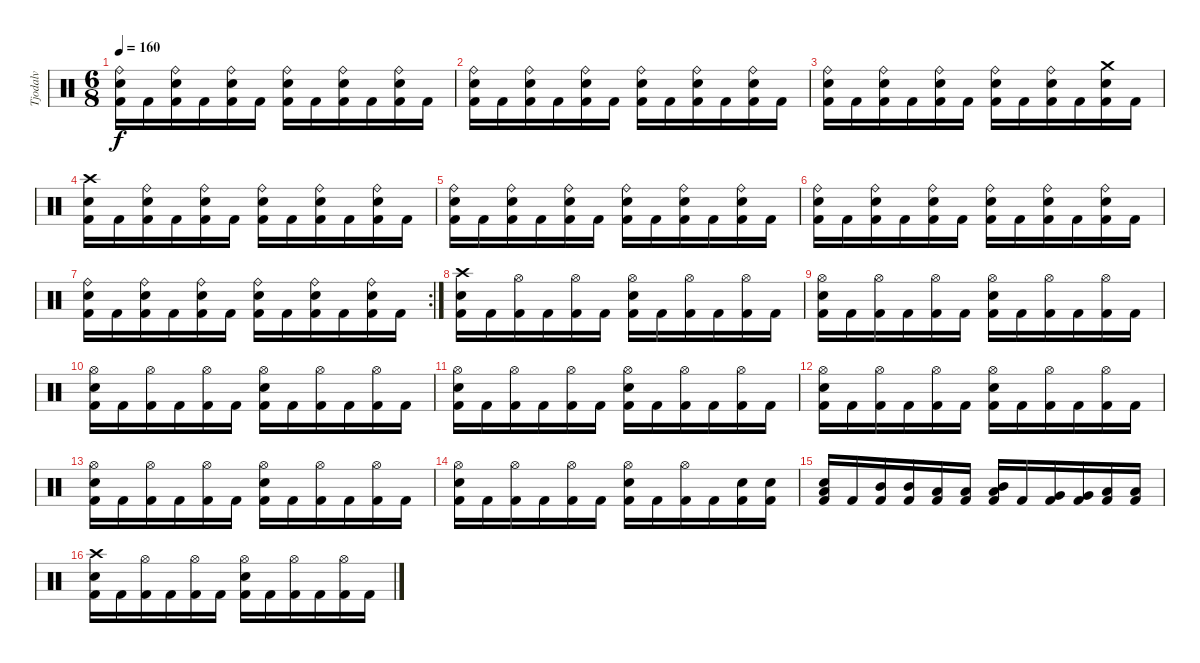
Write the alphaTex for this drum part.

\track ("Tjodalv" "Tjodalv") {instrument percussion}
\staff {score}
\articulation defaults
\ts (6 8)
\tempo 160
\clef neutral
\ks c
("Ride (bell)" "Snare (hit) 2" "Kick (hit) 2").16{dy f} "Kick (hit) 2".16 ("Ride (bell)" "Snare (hit) 2" "Kick (hit) 2").16 "Kick (hit) 2".16 ("Ride (bell)" "Snare (hit) 2" "Kick (hit) 2").16 "Kick (hit) 2".16 ("Ride (bell)" "Snare (hit) 2" "Kick (hit) 2").16 "Kick (hit) 2".16 ("Ride (bell)" "Snare (hit) 2" "Kick (hit) 2").16 "Kick (hit) 2".16 ("Ride (bell)" "Snare (hit) 2" "Kick (hit) 2").16 "Kick (hit) 2".16 |
("Ride (bell)" "Snare (hit) 2" "Kick (hit) 2").16 "Kick (hit) 2".16 ("Ride (bell)" "Snare (hit) 2" "Kick (hit) 2").16 "Kick (hit) 2".16 ("Ride (bell)" "Snare (hit) 2" "Kick (hit) 2").16 "Kick (hit) 2".16 ("Ride (bell)" "Snare (hit) 2" "Kick (hit) 2").16 "Kick (hit) 2".16 ("Ride (bell)" "Snare (hit) 2" "Kick (hit) 2").16 "Kick (hit) 2".16 ("Ride (bell)" "Snare (hit) 2" "Kick (hit) 2").16 "Kick (hit) 2".16 |
("Ride (bell)" "Snare (hit) 2" "Kick (hit) 2").16 "Kick (hit) 2".16 ("Ride (bell)" "Snare (hit) 2" "Kick (hit) 2").16 "Kick (hit) 2".16 ("Ride (bell)" "Snare (hit) 2" "Kick (hit) 2").16 "Kick (hit) 2".16 ("Ride (bell)" "Snare (hit) 2" "Kick (hit) 2").16 "Kick (hit) 2".16 ("Ride (bell)" "Snare (hit) 2" "Kick (hit) 2").16 "Kick (hit) 2".16 ("Crash medium (hit)" "Snare (hit) 2" "Kick (hit) 2").16 "Kick (hit) 2".16 |
("Crash high (hit)" "Snare (hit) 2" "Kick (hit) 2").16 "Kick (hit) 2".16 ("Ride (bell)" "Snare (hit) 2" "Kick (hit) 2").16 "Kick (hit) 2".16 ("Ride (bell)" "Snare (hit) 2" "Kick (hit) 2").16 "Kick (hit) 2".16 ("Ride (bell)" "Snare (hit) 2" "Kick (hit) 2").16 "Kick (hit) 2".16 ("Ride (bell)" "Snare (hit) 2" "Kick (hit) 2").16 "Kick (hit) 2".16 ("Ride (bell)" "Snare (hit) 2" "Kick (hit) 2").16 "Kick (hit) 2".16 |
("Ride (bell)" "Snare (hit) 2" "Kick (hit) 2").16 "Kick (hit) 2".16 ("Ride (bell)" "Snare (hit) 2" "Kick (hit) 2").16 "Kick (hit) 2".16 ("Ride (bell)" "Snare (hit) 2" "Kick (hit) 2").16 "Kick (hit) 2".16 ("Ride (bell)" "Snare (hit) 2" "Kick (hit) 2").16 "Kick (hit) 2".16 ("Ride (bell)" "Snare (hit) 2" "Kick (hit) 2").16 "Kick (hit) 2".16 ("Ride (bell)" "Snare (hit) 2" "Kick (hit) 2").16 "Kick (hit) 2".16 |
("Ride (bell)" "Snare (hit) 2" "Kick (hit) 2").16 "Kick (hit) 2".16 ("Ride (bell)" "Snare (hit) 2" "Kick (hit) 2").16 "Kick (hit) 2".16 ("Ride (bell)" "Snare (hit) 2" "Kick (hit) 2").16 "Kick (hit) 2".16 ("Ride (bell)" "Snare (hit) 2" "Kick (hit) 2").16 "Kick (hit) 2".16 ("Ride (bell)" "Snare (hit) 2" "Kick (hit) 2").16 "Kick (hit) 2".16 ("Ride (bell)" "Snare (hit) 2" "Kick (hit) 2").16 "Kick (hit) 2".16 |
\rc 2
("Ride (bell)" "Snare (hit) 2" "Kick (hit) 2").16 "Kick (hit) 2".16 ("Ride (bell)" "Snare (hit) 2" "Kick (hit) 2").16 "Kick (hit) 2".16 ("Ride (bell)" "Snare (hit) 2" "Kick (hit) 2").16 "Kick (hit) 2".16 ("Ride (bell)" "Snare (hit) 2" "Kick (hit) 2").16 "Kick (hit) 2".16 ("Ride (bell)" "Snare (hit) 2" "Kick (hit) 2").16 "Kick (hit) 2".16 ("Ride (bell)" "Snare (hit) 2" "Kick (hit) 2").16 "Kick (hit) 2".16 |
("Crash high (hit)" "Snare (hit) 2" "Kick (hit) 2").16 "Kick (hit) 2".16 ("Hi-Hat (open)" "Kick (hit) 2").16 "Kick (hit) 2".16 ("Hi-Hat (open)" "Kick (hit) 2").16 "Kick (hit) 2".16 ("Hi-Hat (open)" "Snare (hit) 2" "Kick (hit) 2").16 "Kick (hit) 2".16 ("Hi-Hat (open)" "Kick (hit) 2").16 "Kick (hit) 2".16 ("Hi-Hat (open)" "Kick (hit) 2").16 "Kick (hit) 2".16 |
("Hi-Hat (open)" "Snare (hit) 2" "Kick (hit) 2").16 "Kick (hit) 2".16 ("Hi-Hat (open)" "Kick (hit) 2").16 "Kick (hit) 2".16 ("Hi-Hat (open)" "Kick (hit) 2").16 "Kick (hit) 2".16 ("Hi-Hat (open)" "Snare (hit) 2" "Kick (hit) 2").16 "Kick (hit) 2".16 ("Hi-Hat (open)" "Kick (hit) 2").16 "Kick (hit) 2".16 ("Hi-Hat (open)" "Kick (hit) 2").16 "Kick (hit) 2".16 |
("Hi-Hat (open)" "Snare (hit) 2" "Kick (hit) 2").16 "Kick (hit) 2".16 ("Hi-Hat (open)" "Kick (hit) 2").16 "Kick (hit) 2".16 ("Hi-Hat (open)" "Kick (hit) 2").16 "Kick (hit) 2".16 ("Hi-Hat (open)" "Snare (hit) 2" "Kick (hit) 2").16 "Kick (hit) 2".16 ("Hi-Hat (open)" "Kick (hit) 2").16 "Kick (hit) 2".16 ("Hi-Hat (open)" "Kick (hit) 2").16 "Kick (hit) 2".16 |
("Hi-Hat (open)" "Snare (hit) 2" "Kick (hit) 2").16 "Kick (hit) 2".16 ("Hi-Hat (open)" "Kick (hit) 2").16 "Kick (hit) 2".16 ("Hi-Hat (open)" "Kick (hit) 2").16 "Kick (hit) 2".16 ("Hi-Hat (open)" "Snare (hit) 2" "Kick (hit) 2").16 "Kick (hit) 2".16 ("Hi-Hat (open)" "Kick (hit) 2").16 "Kick (hit) 2".16 ("Hi-Hat (open)" "Kick (hit) 2").16 "Kick (hit) 2".16 |
("Hi-Hat (open)" "Snare (hit) 2" "Kick (hit) 2").16 "Kick (hit) 2".16 ("Hi-Hat (open)" "Kick (hit) 2").16 "Kick (hit) 2".16 ("Hi-Hat (open)" "Kick (hit) 2").16 "Kick (hit) 2".16 ("Hi-Hat (open)" "Snare (hit) 2" "Kick (hit) 2").16 "Kick (hit) 2".16 ("Hi-Hat (open)" "Kick (hit) 2").16 "Kick (hit) 2".16 ("Hi-Hat (open)" "Kick (hit) 2").16 "Kick (hit) 2".16 |
("Hi-Hat (open)" "Snare (hit) 2" "Kick (hit) 2").16 "Kick (hit) 2".16 ("Hi-Hat (open)" "Kick (hit) 2").16 "Kick (hit) 2".16 ("Hi-Hat (open)" "Kick (hit) 2").16 "Kick (hit) 2".16 ("Hi-Hat (open)" "Snare (hit) 2" "Kick (hit) 2").16 "Kick (hit) 2".16 ("Hi-Hat (open)" "Kick (hit) 2").16 "Kick (hit) 2".16 ("Hi-Hat (open)" "Kick (hit) 2").16 "Kick (hit) 2".16 |
("Hi-Hat (open)" "Snare (hit) 2" "Kick (hit) 2").16 "Kick (hit) 2".16 ("Hi-Hat (open)" "Kick (hit) 2").16 "Kick (hit) 2".16 ("Hi-Hat (open)" "Kick (hit) 2").16 "Kick (hit) 2".16 ("Hi-Hat (open)" "Snare (hit) 2" "Kick (hit) 2").16 "Kick (hit) 2".16 ("Hi-Hat (open)" "Kick (hit) 2").16 "Kick (hit) 2".16 ("Snare (hit) 2" "Kick (hit) 2").16 ("Snare (hit) 2" "Kick (hit) 2").16 |
("Low Floor Tom (hit)" "Snare (hit) 2" "Kick (hit) 2").16 "Kick (hit) 2".16 ("Mid Tom (hit)" "Kick (hit) 2").16 ("Mid Tom (hit)" "Kick (hit) 2").16 ("Low Tom (hit)" "Kick (hit) 2").16 ("Low Tom (hit)" "Kick (hit) 2").16 ("Low Tom (hit)" "Mid Tom (hit)" "Kick (hit) 2").16 "Kick (hit) 2".16 ("Very Low Tom (hit)" "Kick (hit) 2").16 ("Very Low Tom (hit)" "Kick (hit) 2").16 ("Low Floor Tom (hit)" "Kick (hit) 2").16 ("Low Floor Tom (hit)" "Kick (hit) 2").16 |
("Crash high (hit)" "Snare (hit) 2" "Kick (hit) 2").16 "Kick (hit) 2".16 ("Hi-Hat (open)" "Kick (hit) 2").16 "Kick (hit) 2".16 ("Hi-Hat (open)" "Kick (hit) 2").16 "Kick (hit) 2".16 ("Hi-Hat (open)" "Snare (hit) 2" "Kick (hit) 2").16 "Kick (hit) 2".16 ("Hi-Hat (open)" "Kick (hit) 2").16 "Kick (hit) 2".16 ("Hi-Hat (open)" "Kick (hit) 2").16 "Kick (hit) 2".16
